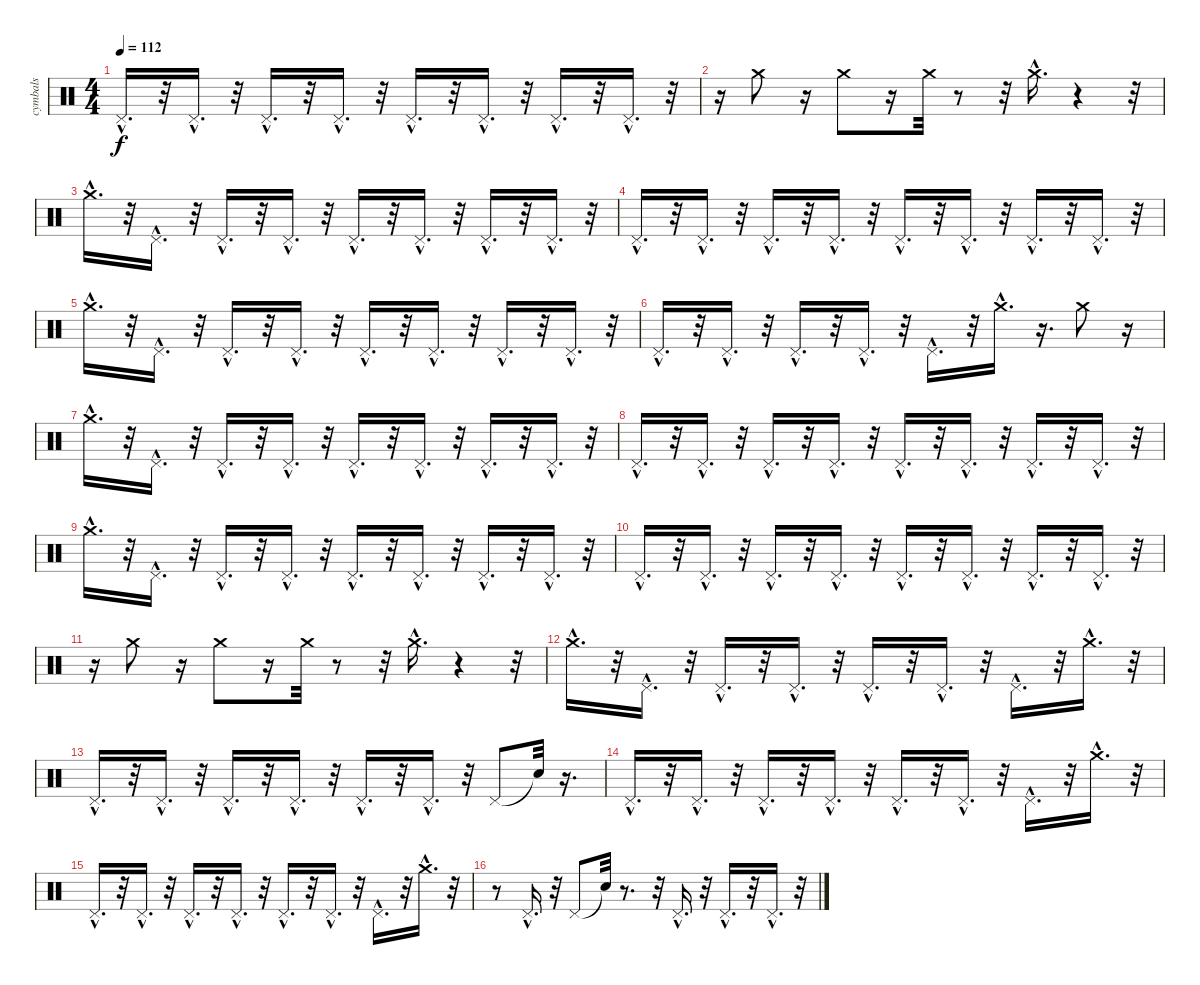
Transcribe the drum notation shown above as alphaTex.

\track ("cymbals" "cymbals") {instrument percussion}
\staff {score}
\articulation defaults
\ts (4 4)
\tempo 112
\clef neutral
\ks c "Pedal Hi-Hat (hit)"{hac}.16{d dy f}
r.32 "Pedal Hi-Hat (hit)"{hac}.16{d} r.32 "Pedal Hi-Hat (hit)"{hac}.16{d} r.32 "Pedal Hi-Hat (hit)"{hac}.16{d} r.32 "Pedal Hi-Hat (hit)"{hac}.16{d} r.32 "Pedal Hi-Hat (hit)"{hac}.16{d} r.32 "Pedal Hi-Hat (hit)"{hac}.16{d} r.32 "Pedal Hi-Hat (hit)"{hac}.16{d} r.32 |
r.16 "Crash medium (hit)".8 r.16 "Crash medium (hit)".8 r.16 "Crash medium (hit)".32 r.8 r.32 "Crash medium (hit)"{hac}.16{d} r.4 r.32 |
"Crash medium (hit)"{hac}.16{d} r.32 "Pedal Hi-Hat (hit)"{hac}.16{d} r.32 "Pedal Hi-Hat (hit)"{hac}.16{d} r.32 "Pedal Hi-Hat (hit)"{hac}.16{d} r.32 "Pedal Hi-Hat (hit)"{hac}.16{d} r.32 "Pedal Hi-Hat (hit)"{hac}.16{d} r.32 "Pedal Hi-Hat (hit)"{hac}.16{d} r.32 "Pedal Hi-Hat (hit)"{hac}.16{d} r.32 |
"Pedal Hi-Hat (hit)"{hac}.16{d} r.32 "Pedal Hi-Hat (hit)"{hac}.16{d} r.32 "Pedal Hi-Hat (hit)"{hac}.16{d} r.32 "Pedal Hi-Hat (hit)"{hac}.16{d} r.32 "Pedal Hi-Hat (hit)"{hac}.16{d} r.32 "Pedal Hi-Hat (hit)"{hac}.16{d} r.32 "Pedal Hi-Hat (hit)"{hac}.16{d} r.32 "Pedal Hi-Hat (hit)"{hac}.16{d} r.32 |
"Crash medium (hit)"{hac}.16{d} r.32 "Pedal Hi-Hat (hit)"{hac}.16{d} r.32 "Pedal Hi-Hat (hit)"{hac}.16{d} r.32 "Pedal Hi-Hat (hit)"{hac}.16{d} r.32 "Pedal Hi-Hat (hit)"{hac}.16{d} r.32 "Pedal Hi-Hat (hit)"{hac}.16{d} r.32 "Pedal Hi-Hat (hit)"{hac}.16{d} r.32 "Pedal Hi-Hat (hit)"{hac}.16{d} r.32 |
"Pedal Hi-Hat (hit)"{hac}.16{d} r.32 "Pedal Hi-Hat (hit)"{hac}.16{d} r.32 "Pedal Hi-Hat (hit)"{hac}.16{d} r.32 "Pedal Hi-Hat (hit)"{hac}.16{d} r.32 "Pedal Hi-Hat (hit)"{hac}.16{d} r.32 "Crash medium (hit)"{hac}.16{d} r.16{d} "Crash medium (hit)".8 r.16 |
"Crash medium (hit)"{hac}.16{d} r.32 "Pedal Hi-Hat (hit)"{hac}.16{d} r.32 "Pedal Hi-Hat (hit)"{hac}.16{d} r.32 "Pedal Hi-Hat (hit)"{hac}.16{d} r.32 "Pedal Hi-Hat (hit)"{hac}.16{d} r.32 "Pedal Hi-Hat (hit)"{hac}.16{d} r.32 "Pedal Hi-Hat (hit)"{hac}.16{d} r.32 "Pedal Hi-Hat (hit)"{hac}.16{d} r.32 |
"Pedal Hi-Hat (hit)"{hac}.16{d} r.32 "Pedal Hi-Hat (hit)"{hac}.16{d} r.32 "Pedal Hi-Hat (hit)"{hac}.16{d} r.32 "Pedal Hi-Hat (hit)"{hac}.16{d} r.32 "Pedal Hi-Hat (hit)"{hac}.16{d} r.32 "Pedal Hi-Hat (hit)"{hac}.16{d} r.32 "Pedal Hi-Hat (hit)"{hac}.16{d} r.32 "Pedal Hi-Hat (hit)"{hac}.16{d} r.32 |
"Crash medium (hit)"{hac}.16{d} r.32 "Pedal Hi-Hat (hit)"{hac}.16{d} r.32 "Pedal Hi-Hat (hit)"{hac}.16{d} r.32 "Pedal Hi-Hat (hit)"{hac}.16{d} r.32 "Pedal Hi-Hat (hit)"{hac}.16{d} r.32 "Pedal Hi-Hat (hit)"{hac}.16{d} r.32 "Pedal Hi-Hat (hit)"{hac}.16{d} r.32 "Pedal Hi-Hat (hit)"{hac}.16{d} r.32 |
"Pedal Hi-Hat (hit)"{hac}.16{d} r.32 "Pedal Hi-Hat (hit)"{hac}.16{d} r.32 "Pedal Hi-Hat (hit)"{hac}.16{d} r.32 "Pedal Hi-Hat (hit)"{hac}.16{d} r.32 "Pedal Hi-Hat (hit)"{hac}.16{d} r.32 "Pedal Hi-Hat (hit)"{hac}.16{d} r.32 "Pedal Hi-Hat (hit)"{hac}.16{d} r.32 "Pedal Hi-Hat (hit)"{hac}.16{d} r.32 |
r.16 "Crash medium (hit)".8 r.16 "Crash medium (hit)".8 r.16 "Crash medium (hit)".32 r.8 r.32 "Crash medium (hit)"{hac}.16{d} r.4 r.32 |
"Crash medium (hit)"{hac}.16{d} r.32 "Pedal Hi-Hat (hit)"{hac}.16{d} r.32 "Pedal Hi-Hat (hit)"{hac}.16{d} r.32 "Pedal Hi-Hat (hit)"{hac}.16{d} r.32 "Pedal Hi-Hat (hit)"{hac}.16{d} r.32 "Pedal Hi-Hat (hit)"{hac}.16{d} r.32 "Pedal Hi-Hat (hit)"{hac}.16{d} r.32 "Crash medium (hit)"{hac}.16{d} r.32 |
"Pedal Hi-Hat (hit)"{hac}.16{d} r.32 "Pedal Hi-Hat (hit)"{hac}.16{d} r.32 "Pedal Hi-Hat (hit)"{hac}.16{d} r.32 "Pedal Hi-Hat (hit)"{hac}.16{d} r.32 "Pedal Hi-Hat (hit)"{hac}.16{d} r.32 "Pedal Hi-Hat (hit)"{hac}.16{d} r.32 "Pedal Hi-Hat (hit)".8 "Snare (hit)"{t}.32 r.16{d} |
"Pedal Hi-Hat (hit)"{hac}.16{d} r.32 "Pedal Hi-Hat (hit)"{hac}.16{d} r.32 "Pedal Hi-Hat (hit)"{hac}.16{d} r.32 "Pedal Hi-Hat (hit)"{hac}.16{d} r.32 "Pedal Hi-Hat (hit)"{hac}.16{d} r.32 "Pedal Hi-Hat (hit)"{hac}.16{d} r.32 "Pedal Hi-Hat (hit)"{hac}.16{d} r.32 "Crash medium (hit)"{hac}.16{d} r.32 |
"Pedal Hi-Hat (hit)"{hac}.16{d} r.32 "Pedal Hi-Hat (hit)"{hac}.16{d} r.32 "Pedal Hi-Hat (hit)"{hac}.16{d} r.32 "Pedal Hi-Hat (hit)"{hac}.16{d} r.32 "Pedal Hi-Hat (hit)"{hac}.16{d} r.32 "Pedal Hi-Hat (hit)"{hac}.16{d} r.32 "Pedal Hi-Hat (hit)"{hac}.16{d} r.32 "Crash medium (hit)"{hac}.16{d} r.32 |
r.8 "Pedal Hi-Hat (hit)"{hac}.16{d} r.32 "Pedal Hi-Hat (hit)".8 "Snare (hit)"{t}.32 r.8{d} r.32 "Pedal Hi-Hat (hit)"{hac}.16{d} r.32 "Pedal Hi-Hat (hit)"{hac}.16{d} r.32 "Pedal Hi-Hat (hit)"{hac}.16{d} r.32
